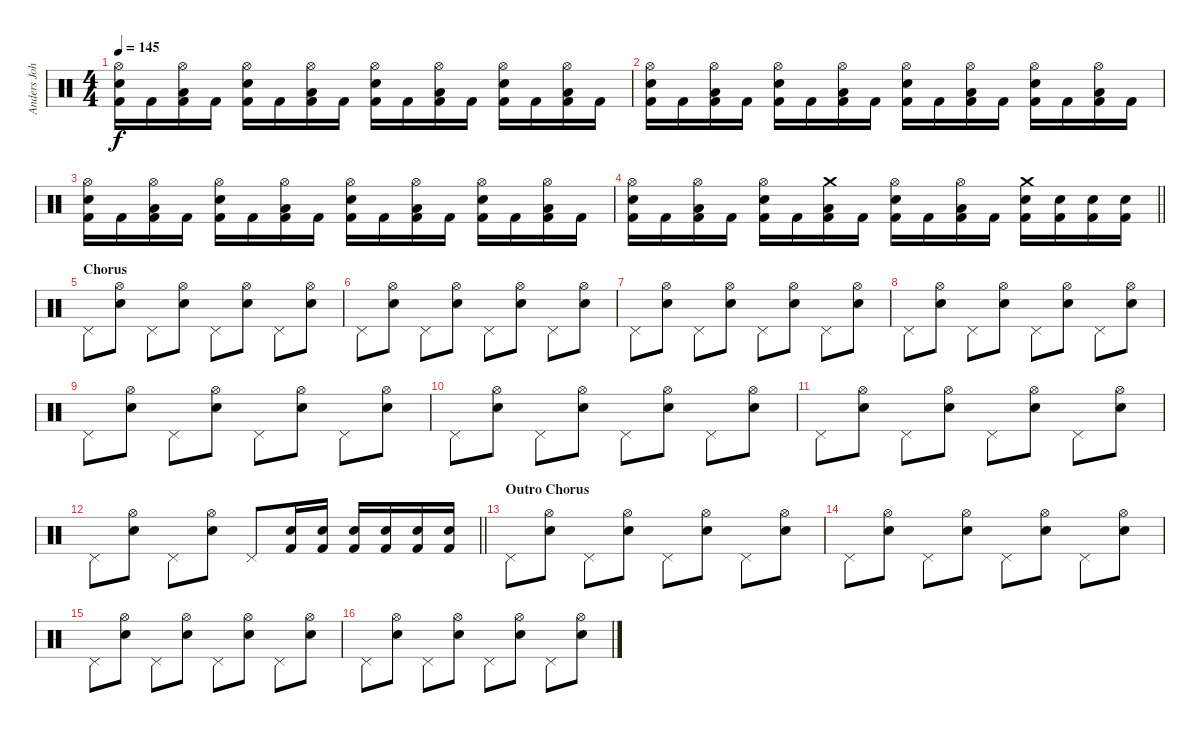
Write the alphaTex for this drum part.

\track ("Anders Johansson (Drums)" "Anders Joh") {instrument percussion}
\staff {score}
\articulation defaults
\ts (4 4)
\tempo 145
\clef neutral
\ks c
("Kick (hit) 2" "Electric Snare (hit)" "Hi-Hat (open)").16{dy f} "Kick (hit) 2".16 ("Kick (hit) 2" "Low Tom (hit)" "Hi-Hat (open)").16 "Kick (hit) 2".16 ("Kick (hit) 2" "Electric Snare (hit)" "Hi-Hat (open)").16 "Kick (hit) 2".16 ("Kick (hit) 2" "Low Tom (hit)" "Hi-Hat (open)").16 "Kick (hit) 2".16 ("Kick (hit) 2" "Electric Snare (hit)" "Hi-Hat (open)").16 "Kick (hit) 2".16 ("Kick (hit) 2" "Low Tom (hit)" "Hi-Hat (open)").16 "Kick (hit) 2".16 ("Kick (hit) 2" "Electric Snare (hit)" "Hi-Hat (open)").16 "Kick (hit) 2".16 ("Kick (hit) 2" "Low Tom (hit)" "Hi-Hat (open)").16 "Kick (hit) 2".16 |
("Kick (hit) 2" "Electric Snare (hit)" "Hi-Hat (open)").16 "Kick (hit) 2".16 ("Kick (hit) 2" "Low Tom (hit)" "Hi-Hat (open)").16 "Kick (hit) 2".16 ("Kick (hit) 2" "Electric Snare (hit)" "Hi-Hat (open)").16 "Kick (hit) 2".16 ("Kick (hit) 2" "Low Tom (hit)" "Hi-Hat (open)").16 "Kick (hit) 2".16 ("Kick (hit) 2" "Electric Snare (hit)" "Hi-Hat (open)").16 "Kick (hit) 2".16 ("Kick (hit) 2" "Low Tom (hit)" "Hi-Hat (open)").16 "Kick (hit) 2".16 ("Kick (hit) 2" "Electric Snare (hit)" "Hi-Hat (open)").16 "Kick (hit) 2".16 ("Kick (hit) 2" "Low Tom (hit)" "Hi-Hat (open)").16 "Kick (hit) 2".16 |
("Kick (hit) 2" "Electric Snare (hit)" "Hi-Hat (open)").16 "Kick (hit) 2".16 ("Kick (hit) 2" "Low Tom (hit)" "Hi-Hat (open)").16 "Kick (hit) 2".16 ("Kick (hit) 2" "Electric Snare (hit)" "Hi-Hat (open)").16 "Kick (hit) 2".16 ("Kick (hit) 2" "Low Tom (hit)" "Hi-Hat (open)").16 "Kick (hit) 2".16 ("Kick (hit) 2" "Electric Snare (hit)" "Hi-Hat (open)").16 "Kick (hit) 2".16 ("Kick (hit) 2" "Low Tom (hit)" "Hi-Hat (open)").16 "Kick (hit) 2".16 ("Kick (hit) 2" "Electric Snare (hit)" "Hi-Hat (open)").16 "Kick (hit) 2".16 ("Kick (hit) 2" "Low Tom (hit)" "Hi-Hat (open)").16 "Kick (hit) 2".16 |
\barLineRight lightlight
("Kick (hit) 2" "Electric Snare (hit)" "Hi-Hat (open)").16 "Kick (hit) 2".16 ("Kick (hit) 2" "Low Tom (hit)" "Hi-Hat (open)").16 "Kick (hit) 2".16 ("Kick (hit) 2" "Electric Snare (hit)" "Hi-Hat (open)").16 "Kick (hit) 2".16 ("Kick (hit) 2" "Low Tom (hit)" "Crash medium (hit)").16 "Kick (hit) 2".16 ("Kick (hit) 2" "Electric Snare (hit)" "Hi-Hat (open)").16 "Kick (hit) 2".16 ("Kick (hit) 2" "Low Tom (hit)" "Hi-Hat (open)").16 "Kick (hit) 2".16 ("Kick (hit) 2" "Electric Snare (hit)" "Crash medium (hit)").16 ("Kick (hit) 2" "Electric Snare (hit)").16 ("Kick (hit) 2" "Electric Snare (hit)").16 ("Kick (hit) 2" "Electric Snare (hit)").16 |
\section ("" "Chorus")
"Pedal Hi-Hat (hit)".8 ("Hi-Hat (open)" "Electric Snare (hit)").8 "Pedal Hi-Hat (hit)".8 ("Hi-Hat (open)" "Electric Snare (hit)").8 "Pedal Hi-Hat (hit)".8 ("Hi-Hat (open)" "Electric Snare (hit)").8 "Pedal Hi-Hat (hit)".8 ("Hi-Hat (open)" "Electric Snare (hit)").8 |
"Pedal Hi-Hat (hit)".8 ("Hi-Hat (open)" "Electric Snare (hit)").8 "Pedal Hi-Hat (hit)".8 ("Hi-Hat (open)" "Electric Snare (hit)").8 "Pedal Hi-Hat (hit)".8 ("Hi-Hat (open)" "Electric Snare (hit)").8 "Pedal Hi-Hat (hit)".8 ("Hi-Hat (open)" "Electric Snare (hit)").8 |
"Pedal Hi-Hat (hit)".8 ("Hi-Hat (open)" "Electric Snare (hit)").8 "Pedal Hi-Hat (hit)".8 ("Hi-Hat (open)" "Electric Snare (hit)").8 "Pedal Hi-Hat (hit)".8 ("Hi-Hat (open)" "Electric Snare (hit)").8 "Pedal Hi-Hat (hit)".8 ("Hi-Hat (open)" "Electric Snare (hit)").8 |
"Pedal Hi-Hat (hit)".8 ("Hi-Hat (open)" "Electric Snare (hit)").8 "Pedal Hi-Hat (hit)".8 ("Hi-Hat (open)" "Electric Snare (hit)").8 "Pedal Hi-Hat (hit)".8 ("Hi-Hat (open)" "Electric Snare (hit)").8 "Pedal Hi-Hat (hit)".8 ("Hi-Hat (open)" "Electric Snare (hit)").8 |
"Pedal Hi-Hat (hit)".8 ("Hi-Hat (open)" "Electric Snare (hit)").8 "Pedal Hi-Hat (hit)".8 ("Hi-Hat (open)" "Electric Snare (hit)").8 "Pedal Hi-Hat (hit)".8 ("Hi-Hat (open)" "Electric Snare (hit)").8 "Pedal Hi-Hat (hit)".8 ("Hi-Hat (open)" "Electric Snare (hit)").8 |
"Pedal Hi-Hat (hit)".8 ("Hi-Hat (open)" "Electric Snare (hit)").8 "Pedal Hi-Hat (hit)".8 ("Hi-Hat (open)" "Electric Snare (hit)").8 "Pedal Hi-Hat (hit)".8 ("Hi-Hat (open)" "Electric Snare (hit)").8 "Pedal Hi-Hat (hit)".8 ("Hi-Hat (open)" "Electric Snare (hit)").8 |
"Pedal Hi-Hat (hit)".8 ("Hi-Hat (open)" "Electric Snare (hit)").8 "Pedal Hi-Hat (hit)".8 ("Hi-Hat (open)" "Electric Snare (hit)").8 "Pedal Hi-Hat (hit)".8 ("Hi-Hat (open)" "Electric Snare (hit)").8 "Pedal Hi-Hat (hit)".8 ("Hi-Hat (open)" "Electric Snare (hit)").8 |
\barLineRight lightlight "Pedal Hi-Hat (hit)".8
("Hi-Hat (open)" "Electric Snare (hit)").8 "Pedal Hi-Hat (hit)".8 ("Hi-Hat (open)" "Electric Snare (hit)").8 "Pedal Hi-Hat (hit)".8 ("Kick (hit) 2" "Electric Snare (hit)").16 ("Kick (hit) 2" "Electric Snare (hit)").16 ("Kick (hit) 2" "Electric Snare (hit)").16 ("Kick (hit) 2" "Electric Snare (hit)").16 ("Kick (hit) 2" "Electric Snare (hit)").16 ("Kick (hit) 2" "Electric Snare (hit)").16 |
\section ("" "Outro Chorus")
"Pedal Hi-Hat (hit)".8 ("Hi-Hat (open)" "Electric Snare (hit)").8 "Pedal Hi-Hat (hit)".8 ("Hi-Hat (open)" "Electric Snare (hit)").8 "Pedal Hi-Hat (hit)".8 ("Hi-Hat (open)" "Electric Snare (hit)").8 "Pedal Hi-Hat (hit)".8 ("Hi-Hat (open)" "Electric Snare (hit)").8 |
"Pedal Hi-Hat (hit)".8 ("Hi-Hat (open)" "Electric Snare (hit)").8 "Pedal Hi-Hat (hit)".8 ("Hi-Hat (open)" "Electric Snare (hit)").8 "Pedal Hi-Hat (hit)".8 ("Hi-Hat (open)" "Electric Snare (hit)").8 "Pedal Hi-Hat (hit)".8 ("Hi-Hat (open)" "Electric Snare (hit)").8 |
"Pedal Hi-Hat (hit)".8 ("Hi-Hat (open)" "Electric Snare (hit)").8 "Pedal Hi-Hat (hit)".8 ("Hi-Hat (open)" "Electric Snare (hit)").8 "Pedal Hi-Hat (hit)".8 ("Hi-Hat (open)" "Electric Snare (hit)").8 "Pedal Hi-Hat (hit)".8 ("Hi-Hat (open)" "Electric Snare (hit)").8 |
"Pedal Hi-Hat (hit)".8 ("Hi-Hat (open)" "Electric Snare (hit)").8 "Pedal Hi-Hat (hit)".8 ("Hi-Hat (open)" "Electric Snare (hit)").8 "Pedal Hi-Hat (hit)".8 ("Hi-Hat (open)" "Electric Snare (hit)").8 "Pedal Hi-Hat (hit)".8 ("Hi-Hat (open)" "Electric Snare (hit)").8
